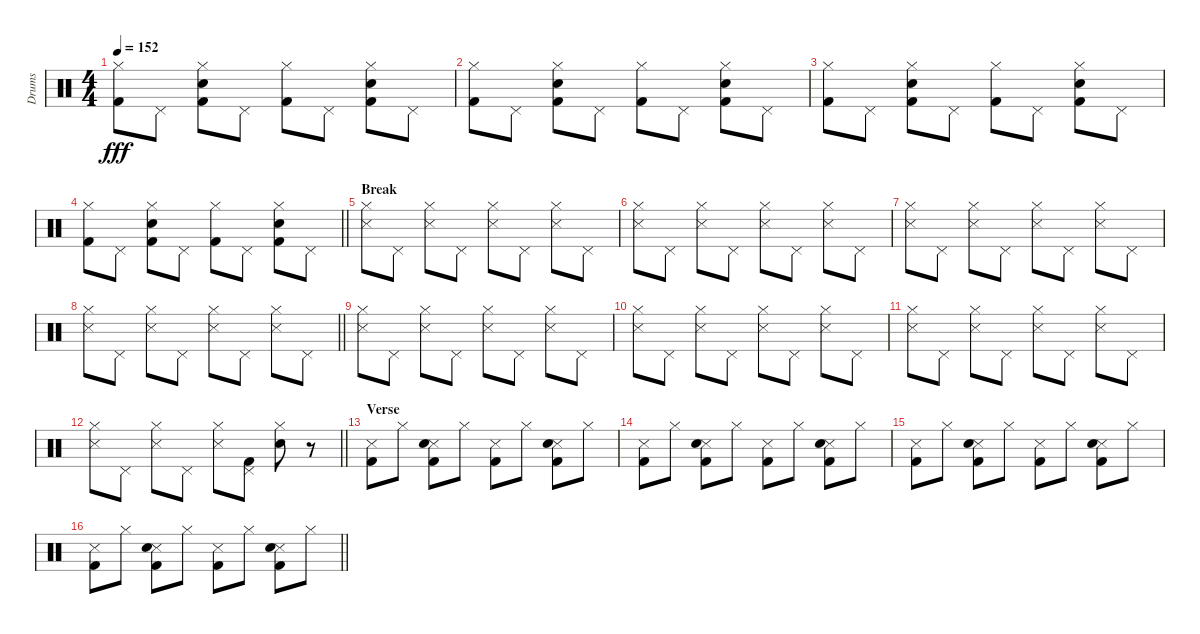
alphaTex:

\track ("Drums" "Drums") {instrument percussion}
\staff {score}
\articulation defaults
\ts (4 4)
\tempo 152
\clef neutral
\ks c
("Hi-Hat (closed)" "Kick (hit) 2").8{dy fff} "Pedal Hi-Hat (hit)".8 ("Hi-Hat (closed)" "Electric Snare (hit)" "Kick (hit) 2").8 "Pedal Hi-Hat (hit)".8 ("Hi-Hat (closed)" "Kick (hit) 2").8 "Pedal Hi-Hat (hit)".8 ("Hi-Hat (closed)" "Electric Snare (hit)" "Kick (hit) 2").8 "Pedal Hi-Hat (hit)".8 |
("Hi-Hat (closed)" "Kick (hit) 2").8 "Pedal Hi-Hat (hit)".8 ("Hi-Hat (closed)" "Electric Snare (hit)" "Kick (hit) 2").8 "Pedal Hi-Hat (hit)".8 ("Hi-Hat (closed)" "Kick (hit) 2").8 "Pedal Hi-Hat (hit)".8 ("Hi-Hat (closed)" "Electric Snare (hit)" "Kick (hit) 2").8 "Pedal Hi-Hat (hit)".8 |
("Hi-Hat (closed)" "Kick (hit) 2").8 "Pedal Hi-Hat (hit)".8 ("Hi-Hat (closed)" "Electric Snare (hit)" "Kick (hit) 2").8 "Pedal Hi-Hat (hit)".8 ("Hi-Hat (closed)" "Kick (hit) 2").8 "Pedal Hi-Hat (hit)".8 ("Hi-Hat (closed)" "Electric Snare (hit)" "Kick (hit) 2").8 "Pedal Hi-Hat (hit)".8 |
\barLineRight lightlight
("Hi-Hat (closed)" "Kick (hit) 2").8 "Pedal Hi-Hat (hit)".8 ("Hi-Hat (closed)" "Electric Snare (hit)" "Kick (hit) 2").8 "Pedal Hi-Hat (hit)".8 ("Hi-Hat (closed)" "Kick (hit) 2").8 "Pedal Hi-Hat (hit)".8 ("Hi-Hat (closed)" "Electric Snare (hit)" "Kick (hit) 2").8 "Pedal Hi-Hat (hit)".8 |
\section ("" "Break")
("Hi-Hat (closed)" "Snare (side stick) 3").8 "Pedal Hi-Hat (hit)".8 ("Hi-Hat (closed)" "Snare (side stick) 3").8 "Pedal Hi-Hat (hit)".8 ("Hi-Hat (closed)" "Snare (side stick) 3").8 "Pedal Hi-Hat (hit)".8 ("Hi-Hat (closed)" "Snare (side stick) 3").8 "Pedal Hi-Hat (hit)".8 |
("Hi-Hat (closed)" "Snare (side stick) 3").8 "Pedal Hi-Hat (hit)".8 ("Hi-Hat (closed)" "Snare (side stick) 3").8 "Pedal Hi-Hat (hit)".8 ("Hi-Hat (closed)" "Snare (side stick) 3").8 "Pedal Hi-Hat (hit)".8 ("Hi-Hat (closed)" "Snare (side stick) 3").8 "Pedal Hi-Hat (hit)".8 |
("Hi-Hat (closed)" "Snare (side stick) 3").8 "Pedal Hi-Hat (hit)".8 ("Hi-Hat (closed)" "Snare (side stick) 3").8 "Pedal Hi-Hat (hit)".8 ("Hi-Hat (closed)" "Snare (side stick) 3").8 "Pedal Hi-Hat (hit)".8 ("Hi-Hat (closed)" "Snare (side stick) 3").8 "Pedal Hi-Hat (hit)".8 |
\barLineRight lightlight
("Hi-Hat (closed)" "Snare (side stick) 3").8 "Pedal Hi-Hat (hit)".8 ("Hi-Hat (closed)" "Snare (side stick) 3").8 "Pedal Hi-Hat (hit)".8 ("Hi-Hat (closed)" "Snare (side stick) 3").8 "Pedal Hi-Hat (hit)".8 ("Hi-Hat (closed)" "Snare (side stick) 3").8 "Pedal Hi-Hat (hit)".8 |
("Hi-Hat (closed)" "Snare (side stick) 3").8 "Pedal Hi-Hat (hit)".8 ("Hi-Hat (closed)" "Snare (side stick) 3").8 "Pedal Hi-Hat (hit)".8 ("Hi-Hat (closed)" "Snare (side stick) 3").8 "Pedal Hi-Hat (hit)".8 ("Hi-Hat (closed)" "Snare (side stick) 3").8 "Pedal Hi-Hat (hit)".8 |
("Hi-Hat (closed)" "Snare (side stick) 3").8 "Pedal Hi-Hat (hit)".8 ("Hi-Hat (closed)" "Snare (side stick) 3").8 "Pedal Hi-Hat (hit)".8 ("Hi-Hat (closed)" "Snare (side stick) 3").8 "Pedal Hi-Hat (hit)".8 ("Hi-Hat (closed)" "Snare (side stick) 3").8 "Pedal Hi-Hat (hit)".8 |
("Hi-Hat (closed)" "Snare (side stick) 3").8 "Pedal Hi-Hat (hit)".8 ("Hi-Hat (closed)" "Snare (side stick) 3").8 "Pedal Hi-Hat (hit)".8 ("Hi-Hat (closed)" "Snare (side stick) 3").8 "Pedal Hi-Hat (hit)".8 ("Hi-Hat (closed)" "Snare (side stick) 3").8 "Pedal Hi-Hat (hit)".8 |
\barLineRight lightlight
("Hi-Hat (closed)" "Snare (side stick) 3").8 "Pedal Hi-Hat (hit)".8 ("Hi-Hat (closed)" "Snare (side stick) 3").8 "Pedal Hi-Hat (hit)".8 ("Hi-Hat (closed)" "Snare (side stick) 3").8 ("Pedal Hi-Hat (hit)" "Kick (hit) 2").8 ("Hi-Hat (closed)" "Electric Snare (hit)").8 r.8 |
\section ("" "Verse")
("Snare (side stick) 3" "Kick (hit) 2").8 "Hi-Hat (closed)".8 ("Snare (side stick) 3" "Electric Snare (hit)" "Kick (hit) 2").8 "Hi-Hat (closed)".8 ("Snare (side stick) 3" "Kick (hit) 2").8 "Hi-Hat (closed)".8 ("Snare (side stick) 3" "Electric Snare (hit)" "Kick (hit) 2").8 "Hi-Hat (closed)".8 |
("Snare (side stick) 3" "Kick (hit) 2").8 "Hi-Hat (closed)".8 ("Snare (side stick) 3" "Electric Snare (hit)" "Kick (hit) 2").8 "Hi-Hat (closed)".8 ("Snare (side stick) 3" "Kick (hit) 2").8 "Hi-Hat (closed)".8 ("Snare (side stick) 3" "Electric Snare (hit)" "Kick (hit) 2").8 "Hi-Hat (closed)".8 |
("Snare (side stick) 3" "Kick (hit) 2").8 "Hi-Hat (closed)".8 ("Snare (side stick) 3" "Electric Snare (hit)" "Kick (hit) 2").8 "Hi-Hat (closed)".8 ("Snare (side stick) 3" "Kick (hit) 2").8 "Hi-Hat (closed)".8 ("Snare (side stick) 3" "Electric Snare (hit)" "Kick (hit) 2").8 "Hi-Hat (closed)".8 |
\barLineRight lightlight
("Snare (side stick) 3" "Kick (hit) 2").8 "Hi-Hat (closed)".8 ("Snare (side stick) 3" "Electric Snare (hit)" "Kick (hit) 2").8 "Hi-Hat (closed)".8 ("Snare (side stick) 3" "Kick (hit) 2").8 "Hi-Hat (closed)".8 ("Snare (side stick) 3" "Electric Snare (hit)" "Kick (hit) 2").8 "Hi-Hat (closed)".8
